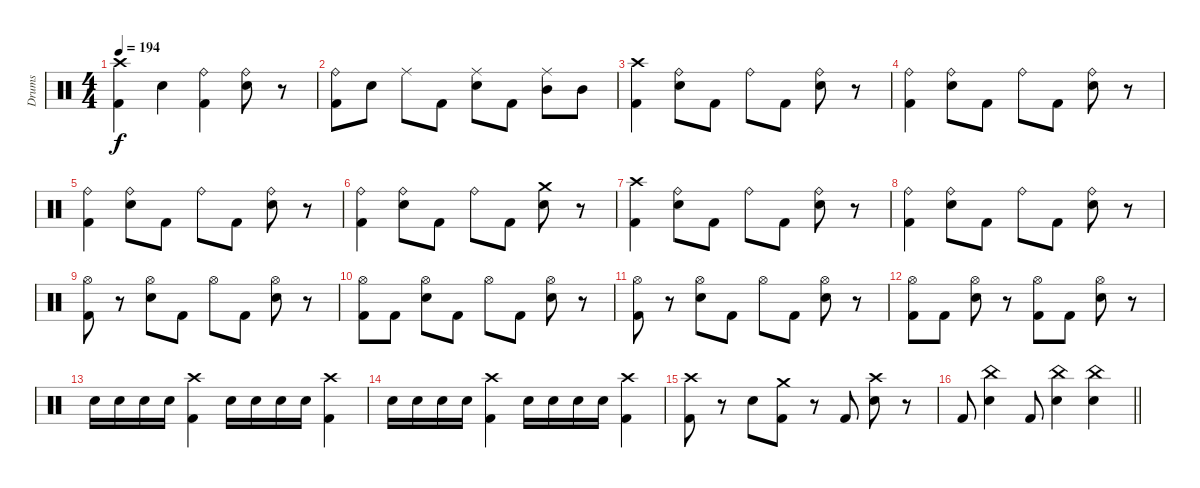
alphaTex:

\track ("Drums" "Drums") {instrument percussion}
\staff {score}
\articulation defaults
\ts (4 4)
\tempo 194
\clef neutral
\ks c
("Crash high (hit)" "Kick (hit) 2").4{dy f} "Snare (hit) 2".4 ("Ride (bell)" "Kick (hit) 2").4 ("Ride (bell)" "Snare (hit) 2").8 r.8 |
("Ride (bell)" "Kick (hit) 2").8 "Snare (hit) 2".8 "Ride (middle)".8 "Kick (hit) 2".8 ("Ride (middle)" "Snare (hit) 2").8 "Kick (hit) 2".8 ("Ride (middle)" "Mid Tom (hit)").8 "Mid Tom (hit)".8 |
("Crash high (hit)" "Kick (hit) 2").4 ("Ride (bell)" "Snare (hit) 2").8 "Kick (hit) 2".8 "Ride (bell)".8 "Kick (hit) 2".8 ("Ride (bell)" "Snare (hit) 2").8 r.8 |
("Ride (bell)" "Kick (hit) 2").4 ("Ride (bell)" "Snare (hit) 2").8 "Kick (hit) 2".8 "Ride (bell)".8 "Kick (hit) 2".8 ("Ride (bell)" "Snare (hit) 2").8 r.8 |
("Ride (bell)" "Kick (hit) 2").4 ("Ride (bell)" "Snare (hit) 2").8 "Kick (hit) 2".8 "Ride (bell)".8 "Kick (hit) 2".8 ("Ride (bell)" "Snare (hit) 2").8 r.8 |
("Ride (bell)" "Kick (hit) 2").4 ("Ride (bell)" "Snare (hit) 2").8 "Kick (hit) 2".8 "Ride (bell)".8 "Kick (hit) 2".8 ("Crash medium (hit)" "Snare (hit) 2").8 r.8 |
("Crash high (hit)" "Kick (hit) 2").4 ("Ride (bell)" "Snare (hit) 2").8 "Kick (hit) 2".8 "Ride (bell)".8 "Kick (hit) 2".8 ("Ride (bell)" "Snare (hit) 2").8 r.8 |
("Ride (bell)" "Kick (hit) 2").4 ("Ride (bell)" "Snare (hit) 2").8 "Kick (hit) 2".8 "Ride (bell)".8 "Kick (hit) 2".8 ("Ride (bell)" "Snare (hit) 2").8 r.8 |
("Hi-Hat (open)" "Kick (hit) 2").8 r.8 ("Hi-Hat (open)" "Snare (hit) 2").8 "Kick (hit) 2".8 "Hi-Hat (open)".8 "Kick (hit) 2".8 ("Hi-Hat (open)" "Snare (hit) 2").8 r.8 |
("Hi-Hat (open)" "Kick (hit) 2").8 "Kick (hit) 2".8 ("Hi-Hat (open)" "Snare (hit) 2").8 "Kick (hit) 2".8 "Hi-Hat (open)".8 "Kick (hit) 2".8 ("Hi-Hat (open)" "Snare (hit) 2").8 r.8 |
("Hi-Hat (open)" "Kick (hit) 2").8 r.8 ("Hi-Hat (open)" "Snare (hit) 2").8 "Kick (hit) 2".8 "Hi-Hat (open)".8 "Kick (hit) 2".8 ("Hi-Hat (open)" "Snare (hit) 2").8 r.8 |
("Hi-Hat (open)" "Kick (hit) 2").8 "Kick (hit) 2".8 ("Hi-Hat (open)" "Snare (hit) 2").8 r.8 ("Hi-Hat (open)" "Kick (hit) 2").8 "Kick (hit) 2".8 ("Hi-Hat (open)" "Snare (hit) 2").8 r.8 |
"Snare (hit) 2".16 "Snare (hit) 2".16 "Snare (hit) 2".16 "Snare (hit) 2".16 ("Crash high (hit)" "Kick (hit) 2").4 "Snare (hit) 2".16 "Snare (hit) 2".16 "Snare (hit) 2".16 "Snare (hit) 2".16 ("Crash high (hit)" "Kick (hit) 2").4 |
"Snare (hit) 2".16 "Snare (hit) 2".16 "Snare (hit) 2".16 "Snare (hit) 2".16 ("Crash high (hit)" "Kick (hit) 2").4 "Snare (hit) 2".16 "Snare (hit) 2".16 "Snare (hit) 2".16 "Snare (hit) 2".16 ("Crash high (hit)" "Kick (hit) 2").4 |
("Crash high (hit)" "Kick (hit) 2").8 r.8 "Snare (hit) 2".8 ("Crash medium (hit)" "Kick (hit) 2").8 r.8 "Kick (hit) 2".8 ("Crash high (hit)" "Snare (hit) 2").8 r.8 |
\barLineRight lightlight "Kick (hit) 2".8
("China (hit)" "Snare (hit) 2").4 "Kick (hit) 2".8 ("China (hit)" "Snare (hit) 2").4 ("China (hit)" "Snare (hit) 2").4
